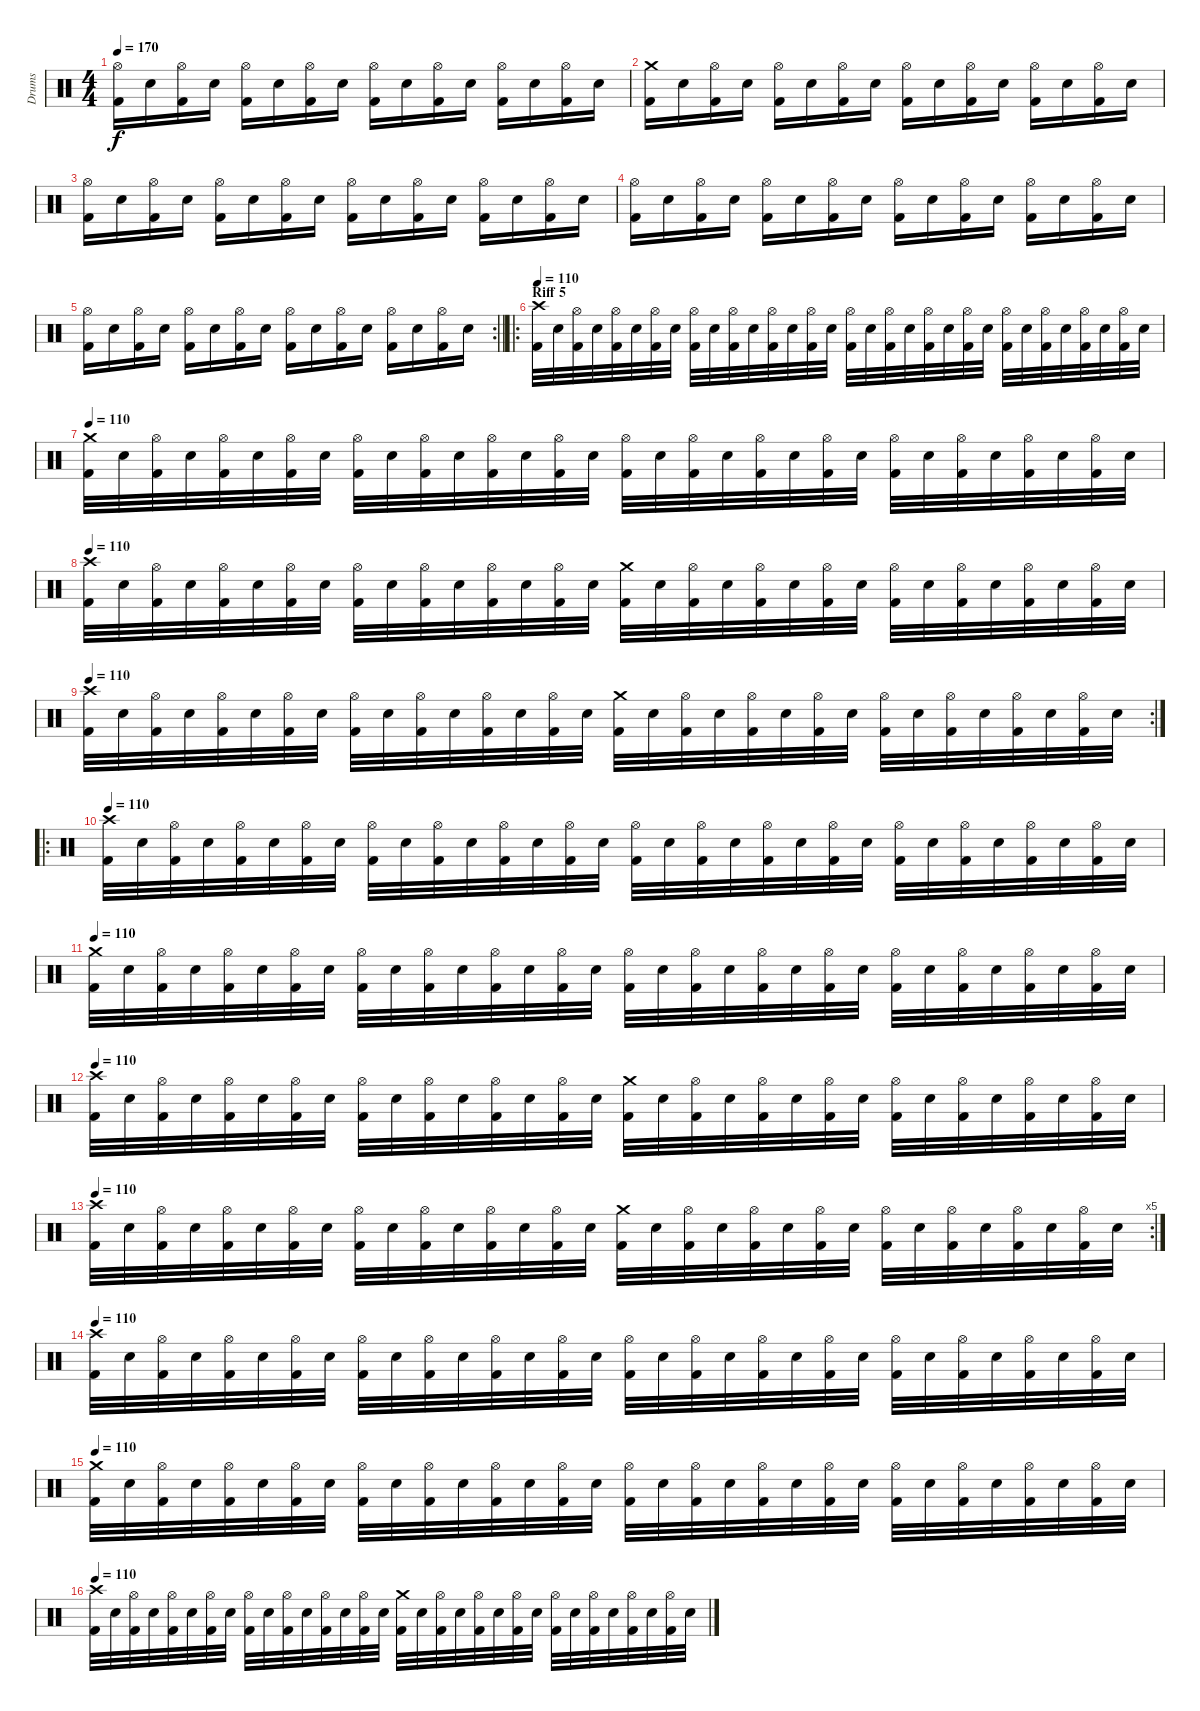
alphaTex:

\track ("Drums" "Drums") {instrument percussion}
\staff {score}
\articulation defaults
\ts (4 4)
\tempo 170
\clef neutral
\ks c
("Hi-Hat (open)" "Kick (hit) 2").16{dy f} "Electric Snare (hit)".16 ("Hi-Hat (open)" "Kick (hit) 2").16 "Electric Snare (hit)".16 ("Hi-Hat (open)" "Kick (hit) 2").16 "Electric Snare (hit)".16 ("Hi-Hat (open)" "Kick (hit) 2").16 "Electric Snare (hit)".16 ("Hi-Hat (open)" "Kick (hit) 2").16 "Electric Snare (hit)".16 ("Hi-Hat (open)" "Kick (hit) 2").16 "Electric Snare (hit)".16 ("Hi-Hat (open)" "Kick (hit) 2").16 "Electric Snare (hit)".16 ("Hi-Hat (open)" "Kick (hit) 2").16 "Electric Snare (hit)".16 |
("Crash medium (hit)" "Kick (hit) 2").16 "Electric Snare (hit)".16 ("Hi-Hat (open)" "Kick (hit) 2").16 "Electric Snare (hit)".16 ("Hi-Hat (open)" "Kick (hit) 2").16 "Electric Snare (hit)".16 ("Hi-Hat (open)" "Kick (hit) 2").16 "Electric Snare (hit)".16 ("Hi-Hat (open)" "Kick (hit) 2").16 "Electric Snare (hit)".16 ("Hi-Hat (open)" "Kick (hit) 2").16 "Electric Snare (hit)".16 ("Hi-Hat (open)" "Kick (hit) 2").16 "Electric Snare (hit)".16 ("Hi-Hat (open)" "Kick (hit) 2").16 "Electric Snare (hit)".16 |
("Hi-Hat (open)" "Kick (hit) 2").16 "Electric Snare (hit)".16 ("Hi-Hat (open)" "Kick (hit) 2").16 "Electric Snare (hit)".16 ("Hi-Hat (open)" "Kick (hit) 2").16 "Electric Snare (hit)".16 ("Hi-Hat (open)" "Kick (hit) 2").16 "Electric Snare (hit)".16 ("Hi-Hat (open)" "Kick (hit) 2").16 "Electric Snare (hit)".16 ("Hi-Hat (open)" "Kick (hit) 2").16 "Electric Snare (hit)".16 ("Hi-Hat (open)" "Kick (hit) 2").16 "Electric Snare (hit)".16 ("Hi-Hat (open)" "Kick (hit) 2").16 "Electric Snare (hit)".16 |
("Hi-Hat (open)" "Kick (hit) 2").16 "Electric Snare (hit)".16 ("Hi-Hat (open)" "Kick (hit) 2").16 "Electric Snare (hit)".16 ("Hi-Hat (open)" "Kick (hit) 2").16 "Electric Snare (hit)".16 ("Hi-Hat (open)" "Kick (hit) 2").16 "Electric Snare (hit)".16 ("Hi-Hat (open)" "Kick (hit) 2").16 "Electric Snare (hit)".16 ("Hi-Hat (open)" "Kick (hit) 2").16 "Electric Snare (hit)".16 ("Hi-Hat (open)" "Kick (hit) 2").16 "Electric Snare (hit)".16 ("Hi-Hat (open)" "Kick (hit) 2").16 "Electric Snare (hit)".16 |
\rc 2
\barLineRight lightlight
("Hi-Hat (open)" "Kick (hit) 2").16 "Electric Snare (hit)".16 ("Hi-Hat (open)" "Kick (hit) 2").16 "Electric Snare (hit)".16 ("Hi-Hat (open)" "Kick (hit) 2").16 "Electric Snare (hit)".16 ("Hi-Hat (open)" "Kick (hit) 2").16 "Electric Snare (hit)".16 ("Hi-Hat (open)" "Kick (hit) 2").16 "Electric Snare (hit)".16 ("Hi-Hat (open)" "Kick (hit) 2").16 "Electric Snare (hit)".16 ("Hi-Hat (open)" "Kick (hit) 2").16 "Electric Snare (hit)".16 ("Hi-Hat (open)" "Kick (hit) 2").16 "Electric Snare (hit)".16 |
\ro
\section ("" "Riff 5")
\tempo 90
\tempo 120
\tempo 110
("Crash high (hit)" "Kick (hit) 2").32 "Electric Snare (hit)".32 ("Hi-Hat (open)" "Kick (hit) 2").32 "Electric Snare (hit)".32 ("Hi-Hat (open)" "Kick (hit) 2").32 "Electric Snare (hit)".32 ("Hi-Hat (open)" "Kick (hit) 2").32 "Electric Snare (hit)".32 ("Hi-Hat (open)" "Kick (hit) 2").32 "Electric Snare (hit)".32 ("Hi-Hat (open)" "Kick (hit) 2").32 "Electric Snare (hit)".32 ("Hi-Hat (open)" "Kick (hit) 2").32 "Electric Snare (hit)".32 ("Hi-Hat (open)" "Kick (hit) 2").32 "Electric Snare (hit)".32 ("Hi-Hat (open)" "Kick (hit) 2").32 "Electric Snare (hit)".32 ("Hi-Hat (open)" "Kick (hit) 2").32 "Electric Snare (hit)".32 ("Hi-Hat (open)" "Kick (hit) 2").32 "Electric Snare (hit)".32 ("Hi-Hat (open)" "Kick (hit) 2").32 "Electric Snare (hit)".32 ("Hi-Hat (open)" "Kick (hit) 2").32 "Electric Snare (hit)".32 ("Hi-Hat (open)" "Kick (hit) 2").32 "Electric Snare (hit)".32 ("Hi-Hat (open)" "Kick (hit) 2").32 "Electric Snare (hit)".32 ("Hi-Hat (open)" "Kick (hit) 2").32 "Electric Snare (hit)".32 |
\tempo 110
("Crash medium (hit)" "Kick (hit) 2").32 "Electric Snare (hit)".32 ("Hi-Hat (open)" "Kick (hit) 2").32 "Electric Snare (hit)".32 ("Hi-Hat (open)" "Kick (hit) 2").32 "Electric Snare (hit)".32 ("Hi-Hat (open)" "Kick (hit) 2").32 "Electric Snare (hit)".32 ("Hi-Hat (open)" "Kick (hit) 2").32 "Electric Snare (hit)".32 ("Hi-Hat (open)" "Kick (hit) 2").32 "Electric Snare (hit)".32 ("Hi-Hat (open)" "Kick (hit) 2").32 "Electric Snare (hit)".32 ("Hi-Hat (open)" "Kick (hit) 2").32 "Electric Snare (hit)".32 ("Hi-Hat (open)" "Kick (hit) 2").32 "Electric Snare (hit)".32 ("Hi-Hat (open)" "Kick (hit) 2").32 "Electric Snare (hit)".32 ("Hi-Hat (open)" "Kick (hit) 2").32 "Electric Snare (hit)".32 ("Hi-Hat (open)" "Kick (hit) 2").32 "Electric Snare (hit)".32 ("Hi-Hat (open)" "Kick (hit) 2").32 "Electric Snare (hit)".32 ("Hi-Hat (open)" "Kick (hit) 2").32 "Electric Snare (hit)".32 ("Hi-Hat (open)" "Kick (hit) 2").32 "Electric Snare (hit)".32 ("Hi-Hat (open)" "Kick (hit) 2").32 "Electric Snare (hit)".32 |
\tempo 110
("Crash high (hit)" "Kick (hit) 2").32 "Electric Snare (hit)".32 ("Hi-Hat (open)" "Kick (hit) 2").32 "Electric Snare (hit)".32 ("Hi-Hat (open)" "Kick (hit) 2").32 "Electric Snare (hit)".32 ("Hi-Hat (open)" "Kick (hit) 2").32 "Electric Snare (hit)".32 ("Hi-Hat (open)" "Kick (hit) 2").32 "Electric Snare (hit)".32 ("Hi-Hat (open)" "Kick (hit) 2").32 "Electric Snare (hit)".32 ("Hi-Hat (open)" "Kick (hit) 2").32 "Electric Snare (hit)".32 ("Hi-Hat (open)" "Kick (hit) 2").32 "Electric Snare (hit)".32 ("Crash medium (hit)" "Kick (hit) 2").32 "Electric Snare (hit)".32 ("Hi-Hat (open)" "Kick (hit) 2").32 "Electric Snare (hit)".32 ("Hi-Hat (open)" "Kick (hit) 2").32 "Electric Snare (hit)".32 ("Hi-Hat (open)" "Kick (hit) 2").32 "Electric Snare (hit)".32 ("Hi-Hat (open)" "Kick (hit) 2").32 "Electric Snare (hit)".32 ("Hi-Hat (open)" "Kick (hit) 2").32 "Electric Snare (hit)".32 ("Hi-Hat (open)" "Kick (hit) 2").32 "Electric Snare (hit)".32 ("Hi-Hat (open)" "Kick (hit) 2").32 "Electric Snare (hit)".32 |
\rc 2
\tempo 110
("Crash high (hit)" "Kick (hit) 2").32 "Electric Snare (hit)".32 ("Hi-Hat (open)" "Kick (hit) 2").32 "Electric Snare (hit)".32 ("Hi-Hat (open)" "Kick (hit) 2").32 "Electric Snare (hit)".32 ("Hi-Hat (open)" "Kick (hit) 2").32 "Electric Snare (hit)".32 ("Hi-Hat (open)" "Kick (hit) 2").32 "Electric Snare (hit)".32 ("Hi-Hat (open)" "Kick (hit) 2").32 "Electric Snare (hit)".32 ("Hi-Hat (open)" "Kick (hit) 2").32 "Electric Snare (hit)".32 ("Hi-Hat (open)" "Kick (hit) 2").32 "Electric Snare (hit)".32 ("Crash medium (hit)" "Kick (hit) 2").32 "Electric Snare (hit)".32 ("Hi-Hat (open)" "Kick (hit) 2").32 "Electric Snare (hit)".32 ("Hi-Hat (open)" "Kick (hit) 2").32 "Electric Snare (hit)".32 ("Hi-Hat (open)" "Kick (hit) 2").32 "Electric Snare (hit)".32 ("Hi-Hat (open)" "Kick (hit) 2").32 "Electric Snare (hit)".32 ("Hi-Hat (open)" "Kick (hit) 2").32 "Electric Snare (hit)".32 ("Hi-Hat (open)" "Kick (hit) 2").32 "Electric Snare (hit)".32 ("Hi-Hat (open)" "Kick (hit) 2").32 "Electric Snare (hit)".32 |
\ro
\tempo 100
\tempo 110
("Crash high (hit)" "Kick (hit) 2").32 "Electric Snare (hit)".32 ("Hi-Hat (open)" "Kick (hit) 2").32 "Electric Snare (hit)".32 ("Hi-Hat (open)" "Kick (hit) 2").32 "Electric Snare (hit)".32 ("Hi-Hat (open)" "Kick (hit) 2").32 "Electric Snare (hit)".32 ("Hi-Hat (open)" "Kick (hit) 2").32 "Electric Snare (hit)".32 ("Hi-Hat (open)" "Kick (hit) 2").32 "Electric Snare (hit)".32 ("Hi-Hat (open)" "Kick (hit) 2").32 "Electric Snare (hit)".32 ("Hi-Hat (open)" "Kick (hit) 2").32 "Electric Snare (hit)".32 ("Hi-Hat (open)" "Kick (hit) 2").32 "Electric Snare (hit)".32 ("Hi-Hat (open)" "Kick (hit) 2").32 "Electric Snare (hit)".32 ("Hi-Hat (open)" "Kick (hit) 2").32 "Electric Snare (hit)".32 ("Hi-Hat (open)" "Kick (hit) 2").32 "Electric Snare (hit)".32 ("Hi-Hat (open)" "Kick (hit) 2").32 "Electric Snare (hit)".32 ("Hi-Hat (open)" "Kick (hit) 2").32 "Electric Snare (hit)".32 ("Hi-Hat (open)" "Kick (hit) 2").32 "Electric Snare (hit)".32 ("Hi-Hat (open)" "Kick (hit) 2").32 "Electric Snare (hit)".32 |
\tempo 110
("Crash medium (hit)" "Kick (hit) 2").32 "Electric Snare (hit)".32 ("Hi-Hat (open)" "Kick (hit) 2").32 "Electric Snare (hit)".32 ("Hi-Hat (open)" "Kick (hit) 2").32 "Electric Snare (hit)".32 ("Hi-Hat (open)" "Kick (hit) 2").32 "Electric Snare (hit)".32 ("Hi-Hat (open)" "Kick (hit) 2").32 "Electric Snare (hit)".32 ("Hi-Hat (open)" "Kick (hit) 2").32 "Electric Snare (hit)".32 ("Hi-Hat (open)" "Kick (hit) 2").32 "Electric Snare (hit)".32 ("Hi-Hat (open)" "Kick (hit) 2").32 "Electric Snare (hit)".32 ("Hi-Hat (open)" "Kick (hit) 2").32 "Electric Snare (hit)".32 ("Hi-Hat (open)" "Kick (hit) 2").32 "Electric Snare (hit)".32 ("Hi-Hat (open)" "Kick (hit) 2").32 "Electric Snare (hit)".32 ("Hi-Hat (open)" "Kick (hit) 2").32 "Electric Snare (hit)".32 ("Hi-Hat (open)" "Kick (hit) 2").32 "Electric Snare (hit)".32 ("Hi-Hat (open)" "Kick (hit) 2").32 "Electric Snare (hit)".32 ("Hi-Hat (open)" "Kick (hit) 2").32 "Electric Snare (hit)".32 ("Hi-Hat (open)" "Kick (hit) 2").32 "Electric Snare (hit)".32 |
\tempo 110
("Crash high (hit)" "Kick (hit) 2").32 "Electric Snare (hit)".32 ("Hi-Hat (open)" "Kick (hit) 2").32 "Electric Snare (hit)".32 ("Hi-Hat (open)" "Kick (hit) 2").32 "Electric Snare (hit)".32 ("Hi-Hat (open)" "Kick (hit) 2").32 "Electric Snare (hit)".32 ("Hi-Hat (open)" "Kick (hit) 2").32 "Electric Snare (hit)".32 ("Hi-Hat (open)" "Kick (hit) 2").32 "Electric Snare (hit)".32 ("Hi-Hat (open)" "Kick (hit) 2").32 "Electric Snare (hit)".32 ("Hi-Hat (open)" "Kick (hit) 2").32 "Electric Snare (hit)".32 ("Crash medium (hit)" "Kick (hit) 2").32 "Electric Snare (hit)".32 ("Hi-Hat (open)" "Kick (hit) 2").32 "Electric Snare (hit)".32 ("Hi-Hat (open)" "Kick (hit) 2").32 "Electric Snare (hit)".32 ("Hi-Hat (open)" "Kick (hit) 2").32 "Electric Snare (hit)".32 ("Hi-Hat (open)" "Kick (hit) 2").32 "Electric Snare (hit)".32 ("Hi-Hat (open)" "Kick (hit) 2").32 "Electric Snare (hit)".32 ("Hi-Hat (open)" "Kick (hit) 2").32 "Electric Snare (hit)".32 ("Hi-Hat (open)" "Kick (hit) 2").32 "Electric Snare (hit)".32 |
\rc 5
\tempo 110
("Crash high (hit)" "Kick (hit) 2").32 "Electric Snare (hit)".32 ("Hi-Hat (open)" "Kick (hit) 2").32 "Electric Snare (hit)".32 ("Hi-Hat (open)" "Kick (hit) 2").32 "Electric Snare (hit)".32 ("Hi-Hat (open)" "Kick (hit) 2").32 "Electric Snare (hit)".32 ("Hi-Hat (open)" "Kick (hit) 2").32 "Electric Snare (hit)".32 ("Hi-Hat (open)" "Kick (hit) 2").32 "Electric Snare (hit)".32 ("Hi-Hat (open)" "Kick (hit) 2").32 "Electric Snare (hit)".32 ("Hi-Hat (open)" "Kick (hit) 2").32 "Electric Snare (hit)".32 ("Crash medium (hit)" "Kick (hit) 2").32 "Electric Snare (hit)".32 ("Hi-Hat (open)" "Kick (hit) 2").32 "Electric Snare (hit)".32 ("Hi-Hat (open)" "Kick (hit) 2").32 "Electric Snare (hit)".32 ("Hi-Hat (open)" "Kick (hit) 2").32 "Electric Snare (hit)".32 ("Hi-Hat (open)" "Kick (hit) 2").32 "Electric Snare (hit)".32 ("Hi-Hat (open)" "Kick (hit) 2").32 "Electric Snare (hit)".32 ("Hi-Hat (open)" "Kick (hit) 2").32 "Electric Snare (hit)".32 ("Hi-Hat (open)" "Kick (hit) 2").32 "Electric Snare (hit)".32 |
\tempo 100
\tempo 110
("Crash high (hit)" "Kick (hit) 2").32 "Electric Snare (hit)".32 ("Hi-Hat (open)" "Kick (hit) 2").32 "Electric Snare (hit)".32 ("Hi-Hat (open)" "Kick (hit) 2").32 "Electric Snare (hit)".32 ("Hi-Hat (open)" "Kick (hit) 2").32 "Electric Snare (hit)".32 ("Hi-Hat (open)" "Kick (hit) 2").32 "Electric Snare (hit)".32 ("Hi-Hat (open)" "Kick (hit) 2").32 "Electric Snare (hit)".32 ("Hi-Hat (open)" "Kick (hit) 2").32 "Electric Snare (hit)".32 ("Hi-Hat (open)" "Kick (hit) 2").32 "Electric Snare (hit)".32 ("Hi-Hat (open)" "Kick (hit) 2").32 "Electric Snare (hit)".32 ("Hi-Hat (open)" "Kick (hit) 2").32 "Electric Snare (hit)".32 ("Hi-Hat (open)" "Kick (hit) 2").32 "Electric Snare (hit)".32 ("Hi-Hat (open)" "Kick (hit) 2").32 "Electric Snare (hit)".32 ("Hi-Hat (open)" "Kick (hit) 2").32 "Electric Snare (hit)".32 ("Hi-Hat (open)" "Kick (hit) 2").32 "Electric Snare (hit)".32 ("Hi-Hat (open)" "Kick (hit) 2").32 "Electric Snare (hit)".32 ("Hi-Hat (open)" "Kick (hit) 2").32 "Electric Snare (hit)".32 |
\tempo 110
("Crash medium (hit)" "Kick (hit) 2").32 "Electric Snare (hit)".32 ("Hi-Hat (open)" "Kick (hit) 2").32 "Electric Snare (hit)".32 ("Hi-Hat (open)" "Kick (hit) 2").32 "Electric Snare (hit)".32 ("Hi-Hat (open)" "Kick (hit) 2").32 "Electric Snare (hit)".32 ("Hi-Hat (open)" "Kick (hit) 2").32 "Electric Snare (hit)".32 ("Hi-Hat (open)" "Kick (hit) 2").32 "Electric Snare (hit)".32 ("Hi-Hat (open)" "Kick (hit) 2").32 "Electric Snare (hit)".32 ("Hi-Hat (open)" "Kick (hit) 2").32 "Electric Snare (hit)".32 ("Hi-Hat (open)" "Kick (hit) 2").32 "Electric Snare (hit)".32 ("Hi-Hat (open)" "Kick (hit) 2").32 "Electric Snare (hit)".32 ("Hi-Hat (open)" "Kick (hit) 2").32 "Electric Snare (hit)".32 ("Hi-Hat (open)" "Kick (hit) 2").32 "Electric Snare (hit)".32 ("Hi-Hat (open)" "Kick (hit) 2").32 "Electric Snare (hit)".32 ("Hi-Hat (open)" "Kick (hit) 2").32 "Electric Snare (hit)".32 ("Hi-Hat (open)" "Kick (hit) 2").32 "Electric Snare (hit)".32 ("Hi-Hat (open)" "Kick (hit) 2").32 "Electric Snare (hit)".32 |
\tempo 110
("Crash high (hit)" "Kick (hit) 2").32 "Electric Snare (hit)".32 ("Hi-Hat (open)" "Kick (hit) 2").32 "Electric Snare (hit)".32 ("Hi-Hat (open)" "Kick (hit) 2").32 "Electric Snare (hit)".32 ("Hi-Hat (open)" "Kick (hit) 2").32 "Electric Snare (hit)".32 ("Hi-Hat (open)" "Kick (hit) 2").32 "Electric Snare (hit)".32 ("Hi-Hat (open)" "Kick (hit) 2").32 "Electric Snare (hit)".32 ("Hi-Hat (open)" "Kick (hit) 2").32 "Electric Snare (hit)".32 ("Hi-Hat (open)" "Kick (hit) 2").32 "Electric Snare (hit)".32 ("Crash medium (hit)" "Kick (hit) 2").32 "Electric Snare (hit)".32 ("Hi-Hat (open)" "Kick (hit) 2").32 "Electric Snare (hit)".32 ("Hi-Hat (open)" "Kick (hit) 2").32 "Electric Snare (hit)".32 ("Hi-Hat (open)" "Kick (hit) 2").32 "Electric Snare (hit)".32 ("Hi-Hat (open)" "Kick (hit) 2").32 "Electric Snare (hit)".32 ("Hi-Hat (open)" "Kick (hit) 2").32 "Electric Snare (hit)".32 ("Hi-Hat (open)" "Kick (hit) 2").32 "Electric Snare (hit)".32 ("Hi-Hat (open)" "Kick (hit) 2").32 "Electric Snare (hit)".32
